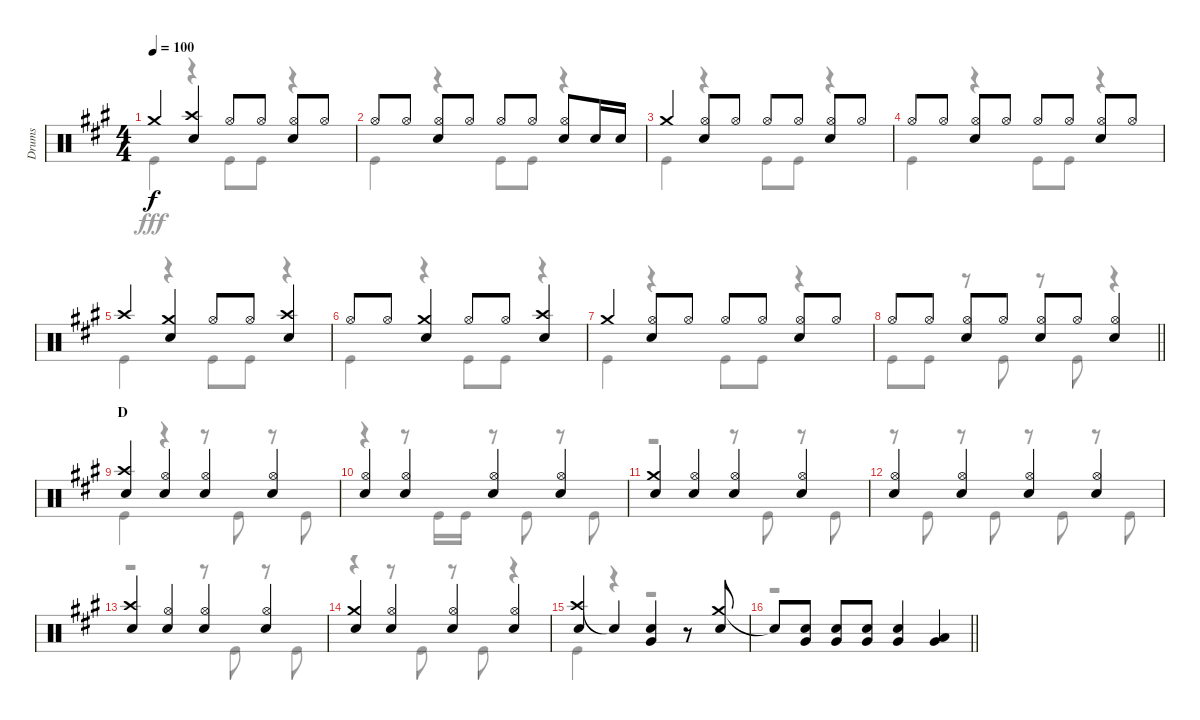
\track ("Drums" "Drums") {instrument percussion}
\staff {score}
\articulation defaults
\voice
\ts (4 4)
\tempo 100
\clef neutral
\ks a "Crash medium (hit)".4{dy f}
("Crash high (hit)" "Snare (hit) 2").4 "Hi-Hat (open)".8 "Hi-Hat (open)".8 ("Hi-Hat (open)" "Snare (hit) 2").8 "Hi-Hat (open)".8 |
"Hi-Hat (open)".8 "Hi-Hat (open)".8 ("Hi-Hat (open)" "Snare (hit) 2").8 "Hi-Hat (open)".8 "Hi-Hat (open)".8 "Hi-Hat (open)".8 ("Hi-Hat (open)" "Snare (hit) 2").8 "Snare (hit) 2".16 "Snare (hit) 2".16 |
"Crash medium (hit)".4 ("Hi-Hat (open)" "Snare (hit) 2").8 "Hi-Hat (open)".8 "Hi-Hat (open)".8 "Hi-Hat (open)".8 ("Hi-Hat (open)" "Snare (hit) 2").8 "Hi-Hat (open)".8 |
"Hi-Hat (open)".8 "Hi-Hat (open)".8 ("Hi-Hat (open)" "Snare (hit) 2").8 "Hi-Hat (open)".8 "Hi-Hat (open)".8 "Hi-Hat (open)".8 ("Hi-Hat (open)" "Snare (hit) 2").8 "Hi-Hat (open)".8 |
"Crash high (hit)".4 ("Crash medium (hit)" "Snare (hit) 2").4 "Hi-Hat (open)".8 "Hi-Hat (open)".8 ("Crash high (hit)" "Snare (hit) 2").4 |
"Hi-Hat (open)".8 "Hi-Hat (open)".8 ("Crash medium (hit)" "Snare (hit) 2").4 "Hi-Hat (open)".8 "Hi-Hat (open)".8 ("Crash high (hit)" "Snare (hit) 2").4 |
"Crash medium (hit)".4 ("Hi-Hat (open)" "Snare (hit) 2").8 "Hi-Hat (open)".8 "Hi-Hat (open)".8 "Hi-Hat (open)".8 ("Hi-Hat (open)" "Snare (hit) 2").8 "Hi-Hat (open)".8 |
\barLineRight lightlight "Hi-Hat (open)".8 "Hi-Hat (open)".8
("Hi-Hat (open)" "Snare (hit) 2").8 "Hi-Hat (open)".8 ("Hi-Hat (open)" "Snare (hit) 2").8 "Hi-Hat (open)".8 ("Hi-Hat (open)" "Snare (hit) 2").4 |
\section ("" "D")
("Crash high (hit)" "Snare (hit) 2").4 ("Hi-Hat (open)" "Snare (hit) 2").4 ("Hi-Hat (open)" "Snare (hit) 2").4 ("Hi-Hat (open)" "Snare (hit) 2").4 |
("Hi-Hat (open)" "Snare (hit) 2").4 ("Hi-Hat (open)" "Snare (hit) 2").4 ("Hi-Hat (open)" "Snare (hit) 2").4 ("Hi-Hat (open)" "Snare (hit) 2").4 |
("Crash medium (hit)" "Snare (hit) 2").4 ("Hi-Hat (open)" "Snare (hit) 2").4 ("Hi-Hat (open)" "Snare (hit) 2").4 ("Hi-Hat (open)" "Snare (hit) 2").4 |
("Hi-Hat (open)" "Snare (hit) 2").4 ("Hi-Hat (open)" "Snare (hit) 2").4 ("Hi-Hat (open)" "Snare (hit) 2").4 ("Hi-Hat (open)" "Snare (hit) 2").4 |
("Crash high (hit)" "Snare (hit) 2").4 ("Hi-Hat (open)" "Snare (hit) 2").4 ("Hi-Hat (open)" "Snare (hit) 2").4 ("Hi-Hat (open)" "Snare (hit) 2").4 |
("Crash medium (hit)" "Snare (hit) 2").4 ("Hi-Hat (open)" "Snare (hit) 2").4 ("Hi-Hat (open)" "Snare (hit) 2").4 ("Hi-Hat (open)" "Snare (hit) 2").4 |
("Crash high (hit)" "Snare (hit) 2").4 "Snare (hit)"{t}.4 ("Snare (hit) 2" "Very Low Tom (hit)").4 r.8 ("Crash medium (hit)" "Snare (hit) 2").8 |
\barLineRight lightlight "Snare (hit)"{t}.8
("Snare (hit) 2" "Very Low Tom (hit)").8 ("Snare (hit) 2" "Very Low Tom (hit)").8 ("Snare (hit) 2" "Very Low Tom (hit)").8 ("Snare (hit) 2" "Very Low Tom (hit)").4 ("Low Tom (hit)" "Very Low Tom (hit)").4
\voice
\clef neutral
\ottava regular
\simile none
\ks a "Kick (hit)".4{dy fff}
r.4 "Kick (hit)".8 "Kick (hit)".8 r.4 |
"Kick (hit)".4 r.4 "Kick (hit)".8 "Kick (hit)".8 r.4 |
"Kick (hit)".4 r.4 "Kick (hit)".8 "Kick (hit)".8 r.4 |
"Kick (hit)".4 r.4 "Kick (hit)".8 "Kick (hit)".8 r.4 |
"Kick (hit)".4 r.4 "Kick (hit)".8 "Kick (hit)".8 r.4 |
"Kick (hit)".4 r.4 "Kick (hit)".8 "Kick (hit)".8 r.4 |
"Kick (hit)".4 r.4 "Kick (hit)".8 "Kick (hit)".8 r.4 |
\barLineRight lightlight "Kick (hit)".8 "Kick (hit)".8
r.8 "Kick (hit)".8 r.8 "Kick (hit)".8 r.4 |
"Kick (hit)".4 r.4 r.8 "Kick (hit)".8 r.8 "Kick (hit)".8 |
r.4 r.8 "Kick (hit)".16 "Kick (hit)".16 r.8 "Kick (hit)".8 r.8 "Kick (hit)".8 |
r.2 r.8 "Kick (hit)".8 r.8 "Kick (hit)".8 |
r.8 "Kick (hit)".8 r.8 "Kick (hit)".8 r.8 "Kick (hit)".8 r.8 "Kick (hit)".8 |
r.2 r.8 "Kick (hit)".8 r.8 "Kick (hit)".8 |
r.4 r.8 "Kick (hit)".8 r.8 "Kick (hit)".8 r.4 |
"Kick (hit)".4 r.4 r.2 |
\barLineRight lightlight
r.1
